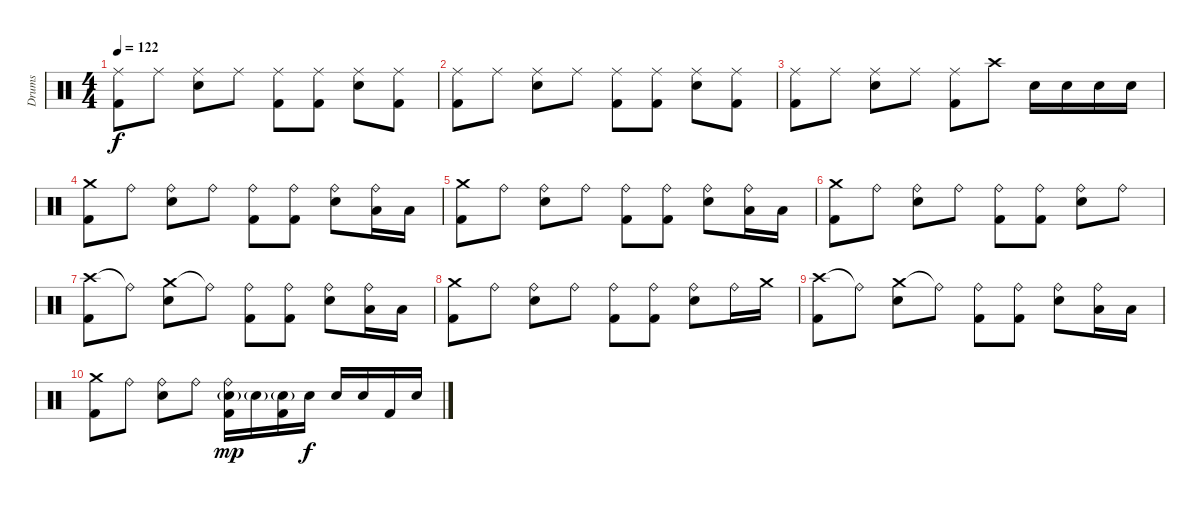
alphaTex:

\track ("Drums" "Drums") {instrument percussion}
\staff {score}
\articulation defaults
\ts (4 4)
\tempo 122
\clef neutral
\ks c
("Ride (middle)" "Kick (hit) 2").8{dy f} "Ride (middle)".8 ("Ride (middle)" "Snare (hit) 2").8 "Ride (middle)".8 ("Ride (middle)" "Kick (hit) 2").8 ("Ride (middle)" "Kick (hit) 2").8 ("Ride (middle)" "Snare (hit) 2").8 ("Ride (middle)" "Kick (hit) 2").8 |
("Ride (middle)" "Kick (hit) 2").8 "Ride (middle)".8 ("Ride (middle)" "Snare (hit) 2").8 "Ride (middle)".8 ("Ride (middle)" "Kick (hit) 2").8 ("Ride (middle)" "Kick (hit) 2").8 ("Ride (middle)" "Snare (hit) 2").8 ("Ride (middle)" "Kick (hit) 2").8 |
("Ride (middle)" "Kick (hit) 2").8 "Ride (middle)".8 ("Ride (middle)" "Snare (hit) 2").8 "Ride (middle)".8 ("Ride (middle)" "Kick (hit) 2").8 "Crash high (hit)".8 "Snare (hit) 2".16 "Snare (hit) 2".16 "Snare (hit) 2".16 "Snare (hit) 2".16 |
("Crash medium (hit)" "Kick (hit) 2").8 "Ride (bell)".8 ("Ride (bell)" "Snare (hit) 2").8 "Ride (bell)".8 ("Ride (bell)" "Kick (hit) 2").8 ("Ride (bell)" "Kick (hit) 2").8 ("Ride (bell)" "Snare (hit) 2").8 ("Ride (bell)" "Low Tom (hit)").16 "Low Tom (hit)".16 |
("Crash medium (hit)" "Kick (hit) 2").8 "Ride (bell)".8 ("Ride (bell)" "Snare (hit) 2").8 "Ride (bell)".8 ("Ride (bell)" "Kick (hit) 2").8 ("Ride (bell)" "Kick (hit) 2").8 ("Ride (bell)" "Snare (hit) 2").8 ("Ride (bell)" "Low Tom (hit)").16 "Low Tom (hit)".16 |
("Crash medium (hit)" "Kick (hit) 2").8 "Ride (bell)".8 ("Ride (bell)" "Snare (hit) 2").8 "Ride (bell)".8 ("Ride (bell)" "Kick (hit) 2").8 ("Ride (bell)" "Kick (hit) 2").8 ("Ride (bell)" "Snare (hit) 2").8 "Ride (bell)".8 |
("Crash high (hit)" "Kick (hit) 2").8 "Ride (bell)"{t}.8 ("Crash medium (hit)" "Snare (hit) 2").8 "Ride (bell)"{t}.8 ("Ride (bell)" "Kick (hit) 2").8 ("Ride (bell)" "Kick (hit) 2").8 ("Ride (bell)" "Snare (hit) 2").8 ("Ride (bell)" "Low Tom (hit)").16 "Low Tom (hit)".16 |
("Crash medium (hit)" "Kick (hit) 2").8 "Ride (bell)".8 ("Ride (bell)" "Snare (hit) 2").8 "Ride (bell)".8 ("Ride (bell)" "Kick (hit) 2").8 ("Ride (bell)" "Kick (hit) 2").8 ("Ride (bell)" "Snare (hit) 2").8 "Ride (bell)".16 "Crash medium (hit)".16 |
("Crash high (hit)" "Kick (hit) 2").8 "Ride (bell)"{t}.8 ("Crash medium (hit)" "Snare (hit) 2").8 "Ride (bell)"{t}.8 ("Ride (bell)" "Kick (hit) 2").8 ("Ride (bell)" "Kick (hit) 2").8 ("Ride (bell)" "Snare (hit) 2").8 ("Ride (bell)" "Low Tom (hit)").16 "Low Tom (hit)".16 |
("Crash medium (hit)" "Kick (hit) 2").8 "Ride (bell)".8 ("Ride (bell)" "Snare (hit) 2").8 "Ride (bell)".8 ("Ride (bell)" "Snare (hit) 2"{g} "Kick (hit) 2").16{dy mp} "Snare (hit) 2"{g}.16 ("Snare (hit) 2"{g} "Kick (hit) 2").16 "Snare (hit) 2".16{dy f} "Snare (hit) 2".16 "Snare (hit) 2".16 "Kick (hit) 2".16 "Snare (hit) 2".16
